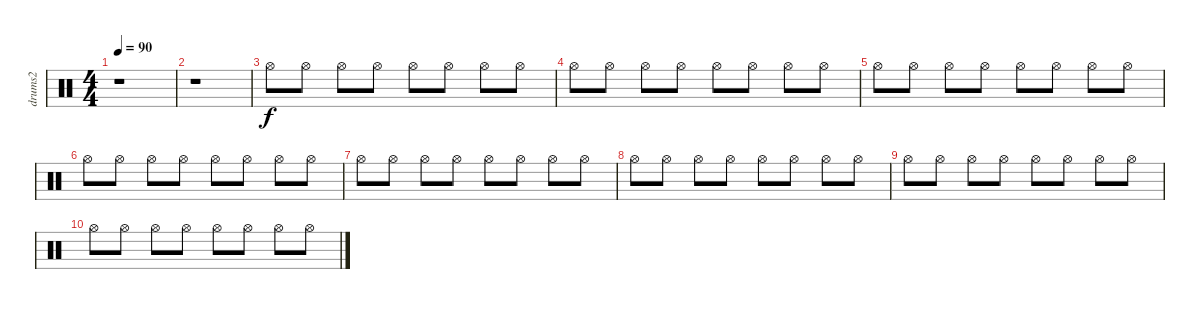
\track ("drums2" "drums2") {instrument percussion}
\staff {score}
\articulation defaults
\ts (4 4)
\tempo 90
\clef neutral
\ks c
r.1{dy f} |
r.1 |
"Hi-Hat (open)".8 "Hi-Hat (open)".8 "Hi-Hat (open)".8 "Hi-Hat (open)".8 "Hi-Hat (open)".8 "Hi-Hat (open)".8 "Hi-Hat (open)".8 "Hi-Hat (open)".8 |
"Hi-Hat (open)".8 "Hi-Hat (open)".8 "Hi-Hat (open)".8 "Hi-Hat (open)".8 "Hi-Hat (open)".8 "Hi-Hat (open)".8 "Hi-Hat (open)".8 "Hi-Hat (open)".8 |
"Hi-Hat (open)".8 "Hi-Hat (open)".8 "Hi-Hat (open)".8 "Hi-Hat (open)".8 "Hi-Hat (open)".8 "Hi-Hat (open)".8 "Hi-Hat (open)".8 "Hi-Hat (open)".8 |
"Hi-Hat (open)".8 "Hi-Hat (open)".8 "Hi-Hat (open)".8 "Hi-Hat (open)".8 "Hi-Hat (open)".8 "Hi-Hat (open)".8 "Hi-Hat (open)".8 "Hi-Hat (open)".8 |
"Hi-Hat (open)".8 "Hi-Hat (open)".8 "Hi-Hat (open)".8 "Hi-Hat (open)".8 "Hi-Hat (open)".8 "Hi-Hat (open)".8 "Hi-Hat (open)".8 "Hi-Hat (open)".8 |
"Hi-Hat (open)".8 "Hi-Hat (open)".8 "Hi-Hat (open)".8 "Hi-Hat (open)".8 "Hi-Hat (open)".8 "Hi-Hat (open)".8 "Hi-Hat (open)".8 "Hi-Hat (open)".8 |
"Hi-Hat (open)".8 "Hi-Hat (open)".8 "Hi-Hat (open)".8 "Hi-Hat (open)".8 "Hi-Hat (open)".8 "Hi-Hat (open)".8 "Hi-Hat (open)".8 "Hi-Hat (open)".8 |
"Hi-Hat (open)".8 "Hi-Hat (open)".8 "Hi-Hat (open)".8 "Hi-Hat (open)".8 "Hi-Hat (open)".8 "Hi-Hat (open)".8 "Hi-Hat (open)".8 "Hi-Hat (open)".8
